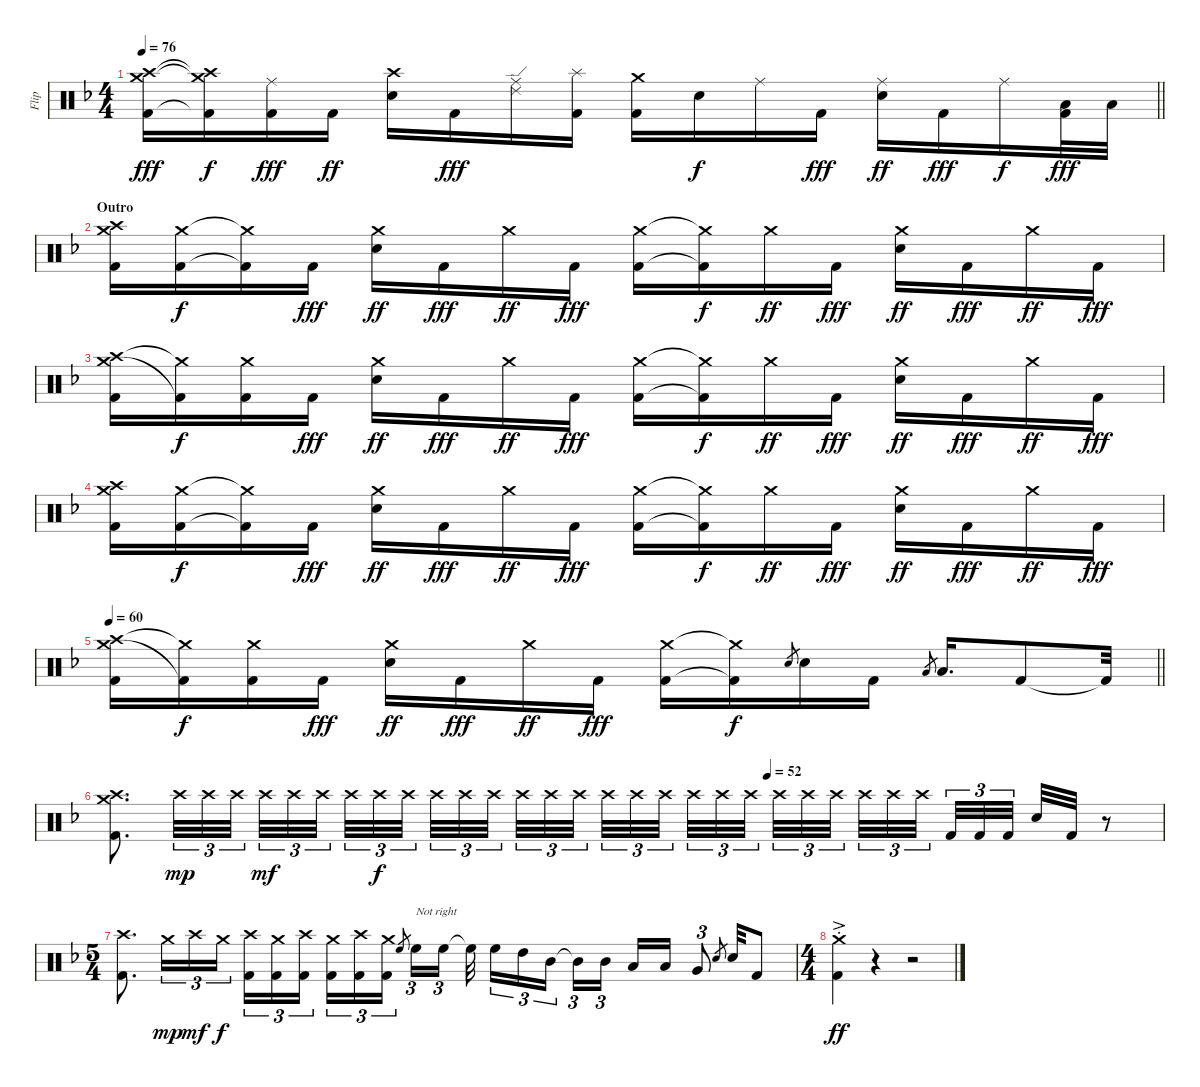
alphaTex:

\track ("Flip" "Flip") {instrument percussion}
\staff {score}
\articulation defaults
\ts (4 4)
\tempo 76
\clef neutral
\barLineRight lightlight
\ks f
("Crash medium (hit)" "Crash high (hit)" "Kick (hit) 2").16{dy fff} ("Crash medium (hit)"{t} "Crash high (hit)"{t} "Kick (hit) 2"{t}).16{dy f} ("Ride (middle)" "Kick (hit) 2").16{dy fff} "Kick (hit) 2".16{dy ff} ("Crash high (hit)" "Snare (hit) 2").16 "Kick (hit) 2".16{dy fff} ("Ride (middle)" "Ride (edge) 2").16 ("Splash (hit)" "Kick (hit) 2").16 ("Crash medium (hit)" "Kick (hit) 2").16 "Snare (hit) 2".16{dy f} "Ride (middle)".16 "Kick (hit) 2".16{dy fff} ("Ride (middle)" "Snare (hit) 2").16{dy ff} "Kick (hit) 2".16{dy fff} "Ride (middle)".16{dy f} ("Low Tom (hit)" "Kick (hit) 2").32{dy fff} "Low Tom (hit)".32 |
\section ("" "Outro")
("Crash high (hit)" "Crash medium (hit)" "Kick (hit) 2").16 ("Crash medium (hit)" "Kick (hit) 2").16{dy f} ("Crash medium (hit)"{t} "Kick (hit) 2"{t}).16 "Kick (hit) 2".16{dy fff} ("Crash medium (hit)" "Snare (hit) 2").16{dy ff} "Kick (hit) 2".16{dy fff} "Crash medium (hit)".16{dy ff} "Kick (hit) 2".16{dy fff} ("Crash medium (hit)" "Kick (hit) 2").16 ("Crash medium (hit)"{t} "Kick (hit) 2"{t}).16{dy f} "Crash medium (hit)".16{dy ff} "Kick (hit) 2".16{dy fff} ("Crash medium (hit)" "Snare (hit) 2").16{dy ff} "Kick (hit) 2".16{dy fff} "Crash medium (hit)".16{dy ff} "Kick (hit) 2".16{dy fff} |
("Crash high (hit)" "Crash medium (hit)" "Kick (hit) 2").16 ("Crash medium (hit)"{t} "Kick (hit) 2"{t}).16{dy f} ("Crash medium (hit)" "Kick (hit) 2").16 "Kick (hit) 2".16{dy fff} ("Crash medium (hit)" "Snare (hit) 2").16{dy ff} "Kick (hit) 2".16{dy fff} "Crash medium (hit)".16{dy ff} "Kick (hit) 2".16{dy fff} ("Crash medium (hit)" "Kick (hit) 2").16 ("Crash medium (hit)"{t} "Kick (hit) 2"{t}).16{dy f} "Crash medium (hit)".16{dy ff} "Kick (hit) 2".16{dy fff} ("Crash medium (hit)" "Snare (hit) 2").16{dy ff} "Kick (hit) 2".16{dy fff} "Crash medium (hit)".16{dy ff} "Kick (hit) 2".16{dy fff} |
("Crash high (hit)" "Crash medium (hit)" "Kick (hit) 2").16 ("Crash medium (hit)" "Kick (hit) 2").16{dy f} ("Crash medium (hit)"{t} "Kick (hit) 2"{t}).16 "Kick (hit) 2".16{dy fff} ("Crash medium (hit)" "Snare (hit) 2").16{dy ff} "Kick (hit) 2".16{dy fff} "Crash medium (hit)".16{dy ff} "Kick (hit) 2".16{dy fff} ("Crash medium (hit)" "Kick (hit) 2").16 ("Crash medium (hit)"{t} "Kick (hit) 2"{t}).16{dy f} "Crash medium (hit)".16{dy ff} "Kick (hit) 2".16{dy fff} ("Crash medium (hit)" "Snare (hit) 2").16{dy ff} "Kick (hit) 2".16{dy fff} "Crash medium (hit)".16{dy ff} "Kick (hit) 2".16{dy fff} |
\tempo 60
\barLineRight lightlight
("Crash high (hit)" "Crash medium (hit)" "Kick (hit) 2").16 ("Crash medium (hit)"{t} "Kick (hit) 2"{t}).16{dy f} ("Crash medium (hit)" "Kick (hit) 2").16 "Kick (hit) 2".16{dy fff} ("Crash medium (hit)" "Snare (hit) 2").16{dy ff} "Kick (hit) 2".16{dy fff} "Crash medium (hit)".16{dy ff} "Kick (hit) 2".16{dy fff} ("Crash medium (hit)" "Kick (hit) 2").16 ("Crash medium (hit)"{t} "Kick (hit) 2"{t}).16{dy f} "Snare (hit) 2".8{gr} "Snare (hit) 2".16 "Kick (hit) 2".16 "Low Tom (hit)".8{gr} "Low Tom (hit)".16{d} "Kick (hit) 2".8 "Kick (hit) 2"{t}.32 |
\tempo (52 0.625)
("Crash high (hit)" "Crash medium (hit)" "Kick (hit) 2").8{d} "Crash high (hit)".32{tu (3 2) dy mp} "Crash high (hit)".32{tu (3 2)} "Crash high (hit)".32{tu (3 2)} "Crash high (hit)".32{tu (3 2) dy mf} "Crash high (hit)".32{tu (3 2)} "Crash high (hit)".32{tu (3 2) beam splitsecondary} "Crash high (hit)".32{tu (3 2)} "Crash high (hit)".32{tu (3 2) dy f} "Crash high (hit)".32{tu (3 2) beam splitsecondary} "Crash high (hit)".32{tu (3 2)} "Crash high (hit)".32{tu (3 2)} "Crash high (hit)".32{tu (3 2) beam splitsecondary} "Crash high (hit)".32{tu (3 2)} "Crash high (hit)".32{tu (3 2)} "Crash high (hit)".32{tu (3 2)} "Crash high (hit)".32{tu (3 2)} "Crash high (hit)".32{tu (3 2)} "Crash high (hit)".32{tu (3 2) beam splitsecondary} "Crash high (hit)".32{tu (3 2)} "Crash high (hit)".32{tu (3 2)} "Crash high (hit)".32{tu (3 2) beam splitsecondary} "Crash high (hit)".32{tu (3 2)} "Crash high (hit)".32{tu (3 2)} "Crash high (hit)".32{tu (3 2) beam splitsecondary} "Crash high (hit)".32{tu (3 2)} "Crash high (hit)".32{tu (3 2)} "Crash high (hit)".32{tu (3 2)} "Kick (hit) 2".32{tu (3 2)} "Kick (hit) 2".32{tu (3 2)} "Kick (hit) 2".32{tu (3 2) beam splitsecondary} "Snare (hit) 2".32 "Kick (hit) 2".32 r.8 |
\ts (5 4)
("Crash high (hit)" "Kick (hit) 2").8{d} "Crash medium (hit)".16{tu (3 2) dy mp} "Crash high (hit)".16{tu (3 2) dy mf} "Crash medium (hit)".16{tu (3 2) dy f beam splitsecondary} ("Crash high (hit)" "Kick (hit) 2").16{tu (3 2)} ("Crash medium (hit)" "Kick (hit) 2").16{tu (3 2)} ("Crash high (hit)" "Kick (hit) 2").16{tu (3 2) beam splitsecondary} ("Crash medium (hit)" "Kick (hit) 2").16{tu (3 2)} ("Crash high (hit)" "Kick (hit) 2").16{tu (3 2)} ("Crash medium (hit)" "Kick (hit) 2").16{tu (3 2)} "High Floor Tom (hit)".8{gr beam splitsecondary} "High Floor Tom (hit)".16{tu (3 2) txt "Not right"} "High Floor Tom (hit)".16{tu (3 2) beam splitsecondary} "High Floor Tom (hit)"{t}.32{beam splitsecondary} "High Floor Tom (hit)".16{tu (3 2)} "High Tom (hit)".16{tu (3 2)} "Mid Tom (hit)".16{tu (3 2) beam splitsecondary} "Mid Tom (hit)"{t}.16{tu (3 2)} "Mid Tom (hit)".16{tu (3 2) beam splitsecondary} "Low Tom (hit)".16 "Low Tom (hit)".16 "Very Low Tom (hit)".8{tu (3 2)} "Snare (hit) 2".8{gr} "Snare (hit) 2".32 "Kick (hit) 2".8 |
\ts (4 4)
("Crash medium (hit)"{st} "Kick (hit) 2"{ac st}).4{dy ff} r.4 r.2
